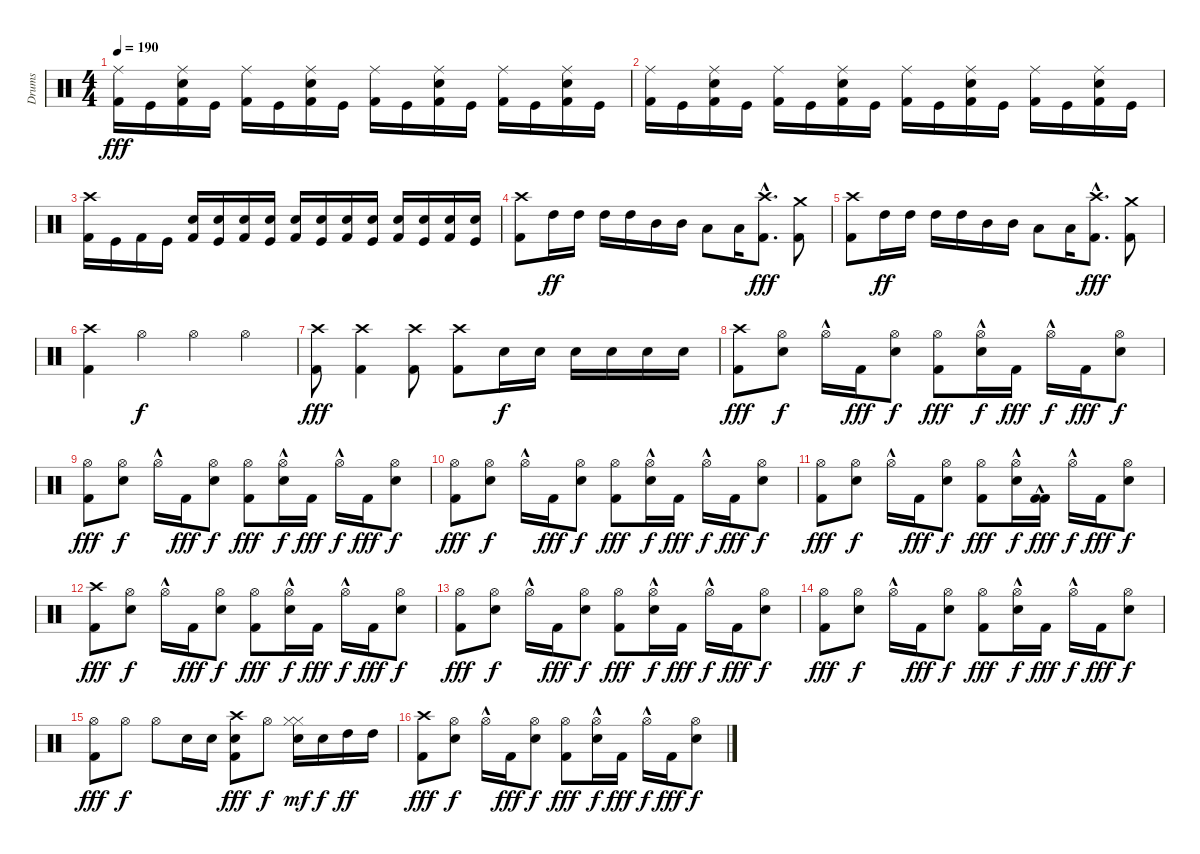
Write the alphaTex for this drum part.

\track ("Drums" "Drums") {instrument percussion}
\staff {score}
\articulation defaults
\ts (4 4)
\tempo 190
\clef neutral
\ks c
("Ride (middle)" "Kick (hit) 2").16{dy fff} "Kick (hit)".16 ("Ride (middle)" "Electric Snare (hit)" "Kick (hit) 2").16 "Kick (hit)".16 ("Ride (middle)" "Kick (hit) 2").16 "Kick (hit)".16 ("Ride (middle)" "Electric Snare (hit)" "Kick (hit) 2").16 "Kick (hit)".16 ("Ride (middle)" "Kick (hit) 2").16 "Kick (hit)".16 ("Ride (middle)" "Electric Snare (hit)" "Kick (hit) 2").16 "Kick (hit)".16 ("Ride (middle)" "Kick (hit) 2").16 "Kick (hit)".16 ("Ride (middle)" "Electric Snare (hit)" "Kick (hit) 2").16 "Kick (hit)".16 |
("Ride (middle)" "Kick (hit) 2").16 "Kick (hit)".16 ("Ride (middle)" "Electric Snare (hit)" "Kick (hit) 2").16 "Kick (hit)".16 ("Ride (middle)" "Kick (hit) 2").16 "Kick (hit)".16 ("Ride (middle)" "Electric Snare (hit)" "Kick (hit) 2").16 "Kick (hit)".16 ("Ride (middle)" "Kick (hit) 2").16 "Kick (hit)".16 ("Ride (middle)" "Electric Snare (hit)" "Kick (hit) 2").16 "Kick (hit)".16 ("Ride (middle)" "Kick (hit) 2").16 "Kick (hit)".16 ("Ride (middle)" "Electric Snare (hit)" "Kick (hit) 2").16 "Kick (hit)".16 |
("Crash high (hit)" "Kick (hit) 2").16 "Kick (hit)".16 "Kick (hit) 2".16 "Kick (hit)".16 ("Electric Snare (hit)" "Kick (hit) 2").16 ("Electric Snare (hit)" "Kick (hit)").16 ("Electric Snare (hit)" "Kick (hit) 2").16 ("Electric Snare (hit)" "Kick (hit)").16 ("Electric Snare (hit)" "Kick (hit) 2").16 ("Electric Snare (hit)" "Kick (hit)").16 ("Electric Snare (hit)" "Kick (hit) 2").16 ("Electric Snare (hit)" "Kick (hit)").16 ("Electric Snare (hit)" "Kick (hit) 2").16 ("Electric Snare (hit)" "Kick (hit)").16 ("Electric Snare (hit)" "Kick (hit) 2").16 ("Electric Snare (hit)" "Kick (hit)").16 |
("Crash high (hit)" "Kick (hit) 2").8 "High Tom (hit)".16{dy ff} "High Tom (hit)".16 "High Tom (hit)".16 "High Tom (hit)".16 "Mid Tom (hit)".16 "Mid Tom (hit)".16 "Low Tom (hit)".8 "Low Tom (hit)".16 ("Crash high (hit)"{hac} "Kick (hit) 2"{hac}).8{d dy fff} ("Crash medium (hit)" "Kick (hit) 2").8 |
("Crash high (hit)" "Kick (hit) 2").8 "High Tom (hit)".16{dy ff} "High Tom (hit)".16 "High Tom (hit)".16 "High Tom (hit)".16 "Mid Tom (hit)".16 "Mid Tom (hit)".16 "Low Tom (hit)".8 "Low Tom (hit)".16 ("Crash high (hit)"{hac} "Kick (hit) 2"{hac}).8{d dy fff} ("Crash medium (hit)" "Kick (hit) 2").8 |
("Crash high (hit)" "Kick (hit) 2").4 "Hi-Hat (open)".4{dy f} "Hi-Hat (open)".4 "Hi-Hat (open)".4 |
("Crash high (hit)" "Kick (hit) 2").8{dy fff} ("Crash high (hit)" "Kick (hit) 2").4 ("Crash high (hit)" "Kick (hit) 2").8 ("Crash high (hit)" "Kick (hit) 2").8 "Electric Snare (hit)".16{dy f} "Electric Snare (hit)".16 "Electric Snare (hit)".16 "Electric Snare (hit)".16 "Electric Snare (hit)".16 "Electric Snare (hit)".16 |
("Crash high (hit)" "Kick (hit) 2").8{dy fff} ("Hi-Hat (open)" "Electric Snare (hit)").8{dy f} "Hi-Hat (open)"{hac}.16 "Kick (hit) 2".16{dy fff} ("Hi-Hat (open)" "Electric Snare (hit)").8{dy f} ("Hi-Hat (open)" "Kick (hit) 2").8{dy fff} ("Hi-Hat (open)"{hac} "Electric Snare (hit)").16{dy f} "Kick (hit) 2".16{dy fff} "Hi-Hat (open)"{hac}.16{dy f} "Kick (hit) 2".16{dy fff} ("Hi-Hat (open)" "Electric Snare (hit)").8{dy f} |
("Hi-Hat (open)" "Kick (hit) 2").8{dy fff} ("Hi-Hat (open)" "Electric Snare (hit)").8{dy f} "Hi-Hat (open)"{hac}.16 "Kick (hit) 2".16{dy fff} ("Hi-Hat (open)" "Electric Snare (hit)").8{dy f} ("Hi-Hat (open)" "Kick (hit) 2").8{dy fff} ("Hi-Hat (open)"{hac} "Electric Snare (hit)").16{dy f} "Kick (hit) 2".16{dy fff} "Hi-Hat (open)"{hac}.16{dy f} "Kick (hit) 2".16{dy fff} ("Hi-Hat (open)" "Electric Snare (hit)").8{dy f} |
("Hi-Hat (open)" "Kick (hit) 2").8{dy fff} ("Hi-Hat (open)" "Electric Snare (hit)").8{dy f} "Hi-Hat (open)"{hac}.16 "Kick (hit) 2".16{dy fff} ("Hi-Hat (open)" "Electric Snare (hit)").8{dy f} ("Hi-Hat (open)" "Kick (hit) 2").8{dy fff} ("Hi-Hat (open)"{hac} "Electric Snare (hit)").16{dy f} "Kick (hit) 2".16{dy fff} "Hi-Hat (open)"{hac}.16{dy f} "Kick (hit) 2".16{dy fff} ("Hi-Hat (open)" "Electric Snare (hit)").8{dy f} |
("Hi-Hat (open)" "Kick (hit) 2").8{dy fff} ("Hi-Hat (open)" "Electric Snare (hit)").8{dy f} "Hi-Hat (open)"{hac}.16 "Kick (hit) 2".16{dy fff} ("Hi-Hat (open)" "Electric Snare (hit)").8{dy f} ("Hi-Hat (open)" "Kick (hit) 2").8{dy fff} ("Hi-Hat (open)"{hac} "Electric Snare (hit)").16{dy f} ("Kick (hit) 2"{hac} "Kick (hit) 2").16{dy fff} "Hi-Hat (open)"{hac}.16{dy f} "Kick (hit) 2".16{dy fff} ("Hi-Hat (open)" "Electric Snare (hit)").8{dy f} |
("Crash high (hit)" "Kick (hit) 2").8{dy fff} ("Hi-Hat (open)" "Electric Snare (hit)").8{dy f} "Hi-Hat (open)"{hac}.16 "Kick (hit) 2".16{dy fff} ("Hi-Hat (open)" "Electric Snare (hit)").8{dy f} ("Hi-Hat (open)" "Kick (hit) 2").8{dy fff} ("Hi-Hat (open)"{hac} "Electric Snare (hit)").16{dy f} "Kick (hit) 2".16{dy fff} "Hi-Hat (open)"{hac}.16{dy f} "Kick (hit) 2".16{dy fff} ("Hi-Hat (open)" "Electric Snare (hit)").8{dy f} |
("Hi-Hat (open)" "Kick (hit) 2").8{dy fff} ("Hi-Hat (open)" "Electric Snare (hit)").8{dy f} "Hi-Hat (open)"{hac}.16 "Kick (hit) 2".16{dy fff} ("Hi-Hat (open)" "Electric Snare (hit)").8{dy f} ("Hi-Hat (open)" "Kick (hit) 2").8{dy fff} ("Hi-Hat (open)"{hac} "Electric Snare (hit)").16{dy f} "Kick (hit) 2".16{dy fff} "Hi-Hat (open)"{hac}.16{dy f} "Kick (hit) 2".16{dy fff} ("Hi-Hat (open)" "Electric Snare (hit)").8{dy f} |
("Hi-Hat (open)" "Kick (hit) 2").8{dy fff} ("Hi-Hat (open)" "Electric Snare (hit)").8{dy f} "Hi-Hat (open)"{hac}.16 "Kick (hit) 2".16{dy fff} ("Hi-Hat (open)" "Electric Snare (hit)").8{dy f} ("Hi-Hat (open)" "Kick (hit) 2").8{dy fff} ("Hi-Hat (open)"{hac} "Electric Snare (hit)").16{dy f} "Kick (hit) 2".16{dy fff} "Hi-Hat (open)"{hac}.16{dy f} "Kick (hit) 2".16{dy fff} ("Hi-Hat (open)" "Electric Snare (hit)").8{dy f} |
("Hi-Hat (open)" "Kick (hit) 2").8{dy fff} "Hi-Hat (open)".8{dy f} "Hi-Hat (open)".8 "Electric Snare (hit)".16 "Electric Snare (hit)".16 ("Crash high (hit)" "Electric Snare (hit)" "Kick (hit) 2").8{dy fff} "Hi-Hat (open)".8{dy f} ("Hi-Hat (closed)" "Hi-Hat (closed)" "Electric Snare (hit)").16{dy mf} "Electric Snare (hit)".16{dy f} "High Tom (hit)".16{dy ff} "High Tom (hit)".16 |
("Crash high (hit)" "Kick (hit) 2").8{dy fff} ("Hi-Hat (open)" "Electric Snare (hit)").8{dy f} "Hi-Hat (open)"{hac}.16 "Kick (hit) 2".16{dy fff} ("Hi-Hat (open)" "Electric Snare (hit)").8{dy f} ("Hi-Hat (open)" "Kick (hit) 2").8{dy fff} ("Hi-Hat (open)"{hac} "Electric Snare (hit)").16{dy f} "Kick (hit) 2".16{dy fff} "Hi-Hat (open)"{hac}.16{dy f} "Kick (hit) 2".16{dy fff} ("Hi-Hat (open)" "Electric Snare (hit)").8{dy f}
